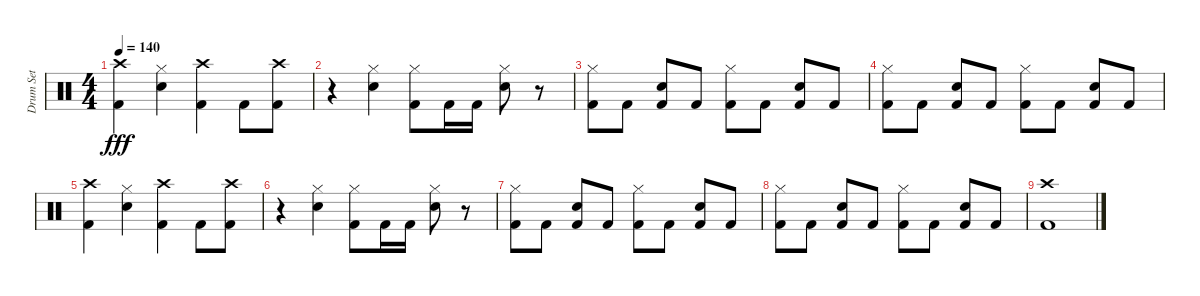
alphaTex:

\track ("Drum Set" "Drum Set") {instrument percussion}
\staff {score}
\articulation defaults
\ts (4 4)
\tempo 140
\clef neutral
\ks c
("Kick (hit) 2" "Crash high (hit)").4{dy fff} ("Electric Snare (hit)" "Hi-Hat (closed)").4 ("Crash high (hit)" "Kick (hit) 2").4 "Kick (hit) 2".8 ("Kick (hit) 2" "Crash high (hit)").8 |
r.4 ("Electric Snare (hit)" "Hi-Hat (closed)").4 ("Kick (hit) 2" "Hi-Hat (closed)").8 "Kick (hit) 2".16 "Kick (hit) 2".16 ("Electric Snare (hit)" "Hi-Hat (closed)").8 r.8 |
("Kick (hit) 2" "Hi-Hat (closed)").8 "Kick (hit) 2".8 ("Electric Snare (hit)" "Kick (hit) 2").8 "Kick (hit) 2".8 ("Kick (hit) 2" "Hi-Hat (closed)").8 "Kick (hit) 2".8 ("Electric Snare (hit)" "Kick (hit) 2").8 "Kick (hit) 2".8 |
("Kick (hit) 2" "Hi-Hat (closed)").8 "Kick (hit) 2".8 ("Electric Snare (hit)" "Kick (hit) 2").8 "Kick (hit) 2".8 ("Kick (hit) 2" "Hi-Hat (closed)").8 "Kick (hit) 2".8 ("Electric Snare (hit)" "Kick (hit) 2").8 "Kick (hit) 2".8 |
("Kick (hit) 2" "Crash high (hit)").4 ("Electric Snare (hit)" "Hi-Hat (closed)").4 ("Kick (hit) 2" "Crash high (hit)").4 "Kick (hit) 2".8 ("Kick (hit) 2" "Crash high (hit)").8 |
r.4 ("Electric Snare (hit)" "Hi-Hat (closed)").4 ("Hi-Hat (closed)" "Kick (hit) 2").8 "Kick (hit) 2".16 "Kick (hit) 2".16 ("Electric Snare (hit)" "Hi-Hat (closed)").8 r.8 |
("Hi-Hat (closed)" "Kick (hit) 2").8 "Kick (hit) 2".8 ("Electric Snare (hit)" "Kick (hit) 2").8 "Kick (hit) 2".8 ("Kick (hit) 2" "Hi-Hat (closed)").8 "Kick (hit) 2".8 ("Electric Snare (hit)" "Kick (hit) 2").8 "Kick (hit) 2".8 |
("Hi-Hat (closed)" "Kick (hit) 2").8 "Kick (hit) 2".8 ("Electric Snare (hit)" "Kick (hit) 2").8 "Kick (hit) 2".8 ("Kick (hit) 2" "Hi-Hat (closed)").8 "Kick (hit) 2".8 ("Electric Snare (hit)" "Kick (hit) 2").8 "Kick (hit) 2".8 |
("Kick (hit) 2" "Crash high (hit)").1
